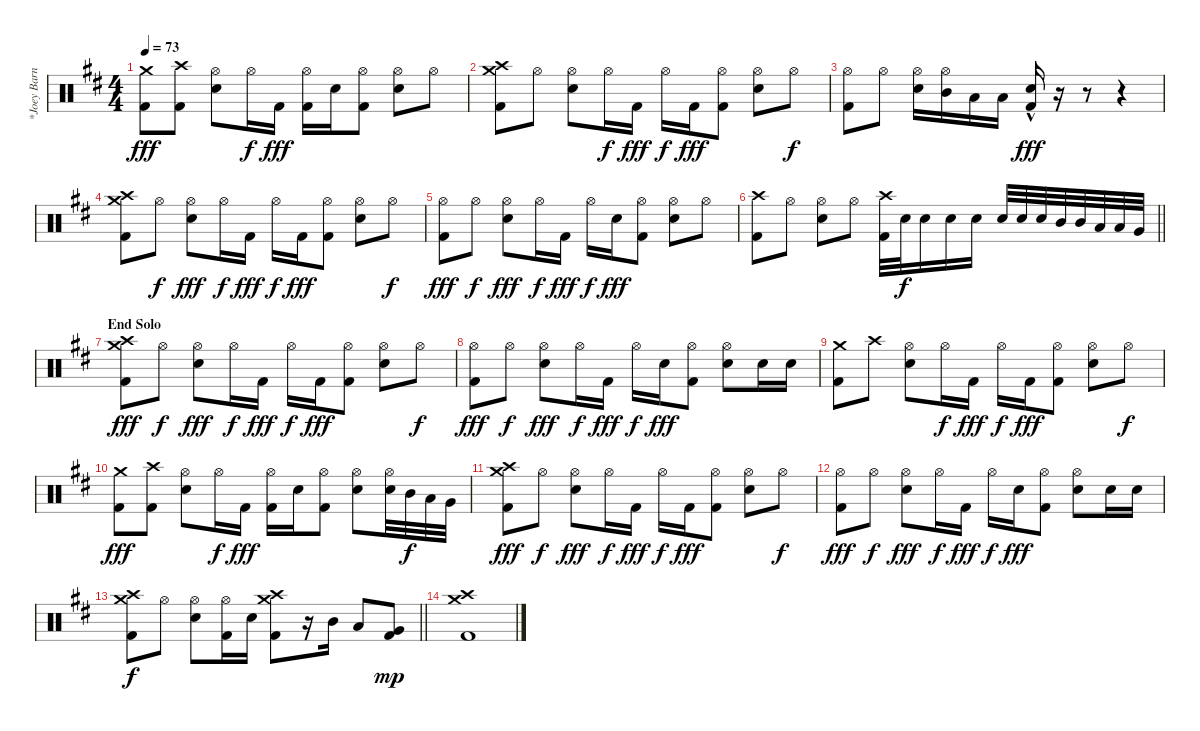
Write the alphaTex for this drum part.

\track ("*Joey Barnes (Drums)" "*Joey Barn") {instrument percussion}
\staff {score}
\articulation defaults
\ts (4 4)
\tempo 73
\clef neutral
\ks d
("Crash medium (hit)" "Kick (hit) 2").8{dy fff} ("Crash high (hit)" "Kick (hit) 2").8 ("Hi-Hat (open)" "Snare (hit) 2").8 "Hi-Hat (open)".16{dy f} "Kick (hit) 2".16{dy fff} ("Hi-Hat (open)" "Kick (hit) 2").16 "Snare (hit) 2".16 ("Hi-Hat (open)" "Kick (hit) 2").8 ("Hi-Hat (open)" "Snare (hit) 2").8 "Hi-Hat (open)".8 |
("Crash high (hit)" "Crash medium (hit)" "Kick (hit) 2").8 "Hi-Hat (open)".8 ("Hi-Hat (open)" "Snare (hit) 2").8 "Hi-Hat (open)".16{dy f} "Kick (hit) 2".16{dy fff} "Hi-Hat (open)".16{dy f} "Kick (hit) 2".16{dy fff} ("Hi-Hat (open)" "Kick (hit) 2").8 ("Hi-Hat (open)" "Snare (hit) 2").8 "Hi-Hat (open)".8{dy f} |
("Hi-Hat (open)" "Kick (hit) 2").8 "Hi-Hat (open)".8 ("Hi-Hat (open)" "Snare (hit) 2").16 ("Hi-Hat (open)" "Mid Tom (hit)").16 "Low Tom (hit)".16 "Low Floor Tom (hit)".16 ("Snare (hit) 2"{hac} "Kick (hit) 2").16{dy fff} r.16 r.8 r.4 |
("Crash high (hit)" "Crash medium (hit)" "Kick (hit) 2").8 "Hi-Hat (open)".8{dy f} ("Hi-Hat (open)" "Snare (hit) 2").8{dy fff} "Hi-Hat (open)".16{dy f} "Kick (hit) 2".16{dy fff} "Hi-Hat (open)".16{dy f} "Kick (hit) 2".16{dy fff} ("Hi-Hat (open)" "Kick (hit) 2").8 ("Hi-Hat (open)" "Snare (hit) 2").8 "Hi-Hat (open)".8{dy f} |
("Hi-Hat (open)" "Kick (hit) 2").8{dy fff} "Hi-Hat (open)".8{dy f} ("Hi-Hat (open)" "Snare (hit) 2").8{dy fff} "Hi-Hat (open)".16{dy f} "Kick (hit) 2".16{dy fff} "Hi-Hat (open)".16{dy f} "Snare (hit) 2".16{dy fff} ("Hi-Hat (open)" "Kick (hit) 2").8 ("Hi-Hat (open)" "Snare (hit) 2").8 "Hi-Hat (open)".8 |
\barLineRight lightlight
("Crash high (hit)" "Kick (hit) 2").8 "Hi-Hat (open)".8 ("Hi-Hat (open)" "Snare (hit) 2").8 "Hi-Hat (open)".8 ("Crash high (hit)" "Kick (hit) 2").32 "Snare (hit) 2".32{dy f} "Snare (hit) 2".16 "Snare (hit) 2".16 "Snare (hit) 2".16 "Snare (hit) 2".32 "Snare (hit) 2".32 "Snare (hit) 2".32 "Mid Tom (hit)".32 "Mid Tom (hit)".32 "Low Tom (hit)".32 "Low Tom (hit)".32 "Very Low Tom (hit)".32 |
\section ("" "End Solo")
("Crash high (hit)" "Crash medium (hit)" "Kick (hit) 2").8{dy fff} "Hi-Hat (open)".8{dy f} ("Hi-Hat (open)" "Snare (hit) 2").8{dy fff} "Hi-Hat (open)".16{dy f} "Kick (hit) 2".16{dy fff} "Hi-Hat (open)".16{dy f} "Kick (hit) 2".16{dy fff} ("Hi-Hat (open)" "Kick (hit) 2").8 ("Hi-Hat (open)" "Snare (hit) 2").8 "Hi-Hat (open)".8{dy f} |
("Hi-Hat (open)" "Kick (hit) 2").8{dy fff} "Hi-Hat (open)".8{dy f} ("Hi-Hat (open)" "Snare (hit) 2").8{dy fff} "Hi-Hat (open)".16{dy f} "Kick (hit) 2".16{dy fff} "Hi-Hat (open)".16{dy f} "Snare (hit) 2".16{dy fff} ("Hi-Hat (open)" "Kick (hit) 2").8 ("Hi-Hat (open)" "Snare (hit) 2").8 "Snare (hit) 2".16 "Snare (hit) 2".16 |
("Crash medium (hit)" "Kick (hit) 2").8 "Crash high (hit)".8 ("Hi-Hat (open)" "Snare (hit) 2").8 "Hi-Hat (open)".16{dy f} "Kick (hit) 2".16{dy fff} "Hi-Hat (open)".16{dy f} "Kick (hit) 2".16{dy fff} ("Hi-Hat (open)" "Kick (hit) 2").8 ("Hi-Hat (open)" "Snare (hit) 2").8 "Hi-Hat (open)".8{dy f} |
("Crash medium (hit)" "Kick (hit) 2").8{dy fff} ("Crash high (hit)" "Kick (hit) 2").8 ("Hi-Hat (open)" "Snare (hit) 2").8 "Hi-Hat (open)".16{dy f} "Kick (hit) 2".16{dy fff} ("Hi-Hat (open)" "Kick (hit) 2").16 "Snare (hit) 2".16 ("Hi-Hat (open)" "Kick (hit) 2").8 ("Hi-Hat (open)" "Snare (hit) 2").8 ("Hi-Hat (open)" "Snare (hit) 2").32 "Mid Tom (hit)".32{dy f} "Low Tom (hit)".32 "Very Low Tom (hit)".32 |
("Crash high (hit)" "Crash medium (hit)" "Kick (hit) 2").8{dy fff} "Hi-Hat (open)".8{dy f} ("Hi-Hat (open)" "Snare (hit) 2").8{dy fff} "Hi-Hat (open)".16{dy f} "Kick (hit) 2".16{dy fff} "Hi-Hat (open)".16{dy f} "Kick (hit) 2".16{dy fff} ("Hi-Hat (open)" "Kick (hit) 2").8 ("Hi-Hat (open)" "Snare (hit) 2").8 "Hi-Hat (open)".8{dy f} |
("Hi-Hat (open)" "Kick (hit) 2").8{dy fff} "Hi-Hat (open)".8{dy f} ("Hi-Hat (open)" "Snare (hit) 2").8{dy fff} "Hi-Hat (open)".16{dy f} "Kick (hit) 2".16{dy fff} "Hi-Hat (open)".16{dy f} "Snare (hit) 2".16{dy fff} ("Hi-Hat (open)" "Kick (hit) 2").8 ("Hi-Hat (open)" "Snare (hit) 2").8 "Snare (hit) 2".16 "Snare (hit) 2".16 |
\barLineRight lightlight
("Crash high (hit)" "Crash medium (hit)" "Kick (hit) 2").8{dy f} "Hi-Hat (open)".8 ("Hi-Hat (open)" "Snare (hit) 2").8 ("Hi-Hat (open)" "Kick (hit) 2").16 "Snare (hit) 2".16 ("Crash high (hit)" "Crash medium (hit)" "Kick (hit) 2").8 r.16 "Mid Tom (hit)".16 "Low Tom (hit)".8 ("Very Low Tom (hit)" "Kick (hit) 2").8{dy mp} |
("Crash high (hit)" "Crash medium (hit)" "Kick (hit) 2").1
